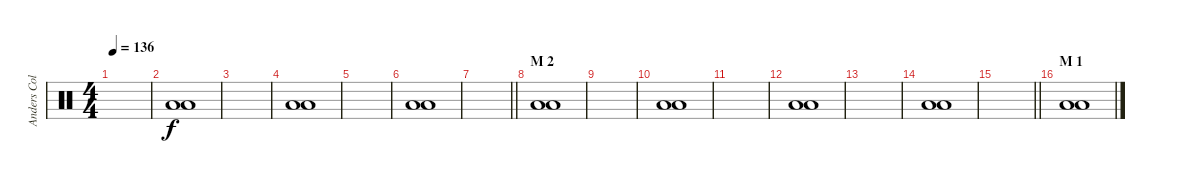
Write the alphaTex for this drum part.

\track ("Anders Colsefni" "Anders Col") {instrument percussion}
\staff {score}
\articulation defaults
\ts (4 4)
\tempo 136
\clef neutral
\ks c
|
("Low Floor Tom (hit)" "Low Floor Tom (hit)").1 |
|
("Low Floor Tom (hit)" "Low Floor Tom (hit)").1 |
|
("Low Floor Tom (hit)" "Low Floor Tom (hit)").1 |
\barLineRight lightlight
|
\section ("" "M 2")
("Low Floor Tom (hit)" "Low Floor Tom (hit)").1 |
|
("Low Floor Tom (hit)" "Low Floor Tom (hit)").1 |
|
("Low Floor Tom (hit)" "Low Floor Tom (hit)").1 |
|
("Low Floor Tom (hit)" "Low Floor Tom (hit)").1 |
\barLineRight lightlight
|
\section ("" "M 1")
("Low Floor Tom (hit)" "Low Floor Tom (hit)").1
